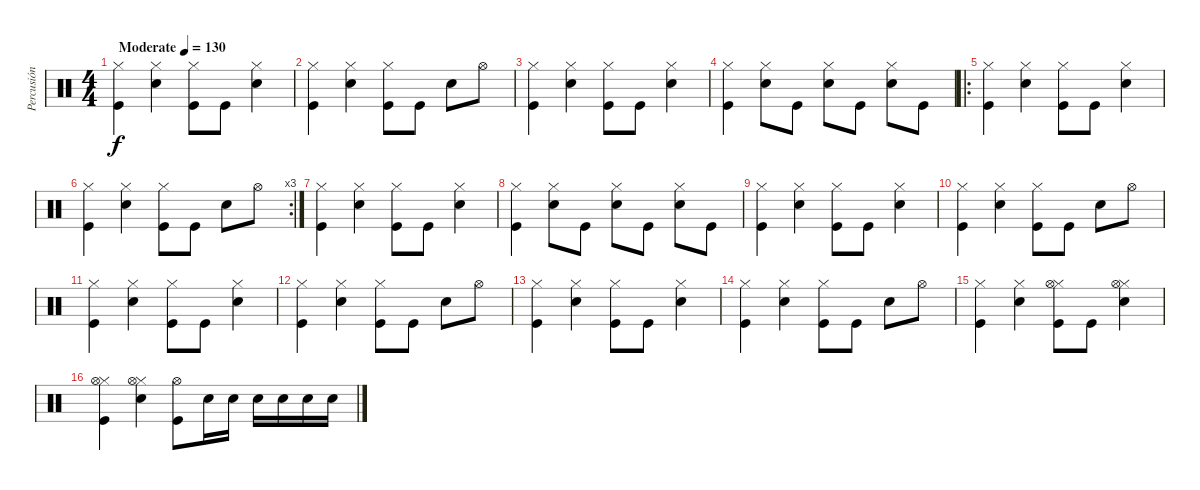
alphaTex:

\track ("Percusión" "Percusión") {instrument percussion}
\staff {score}
\articulation defaults
\ts (4 4)
\tempo (130 "Moderate")
\clef neutral
\ks c
("Kick (hit)" "Hi-Hat (closed)").4{dy f} ("Snare (hit) 2" "Hi-Hat (closed)").4 ("Kick (hit)" "Hi-Hat (closed)").8 "Kick (hit)".8 ("Snare (hit) 2" "Hi-Hat (closed)").4 |
("Kick (hit)" "Hi-Hat (closed)").4 ("Snare (hit) 2" "Hi-Hat (closed)").4 ("Kick (hit)" "Hi-Hat (closed)").8 "Kick (hit)".8 "Snare (hit) 2".8 "Hi-Hat (open)".8 |
("Kick (hit)" "Hi-Hat (closed)").4 ("Snare (hit) 2" "Hi-Hat (closed)").4 ("Kick (hit)" "Hi-Hat (closed)").8 "Kick (hit)".8 ("Snare (hit) 2" "Hi-Hat (closed)").4 |
("Kick (hit)" "Hi-Hat (closed)").4 ("Snare (hit) 2" "Hi-Hat (closed)").8 "Kick (hit)".8 ("Snare (hit) 2" "Hi-Hat (closed)").8 "Kick (hit)".8 ("Snare (hit) 2" "Hi-Hat (closed)").8 "Kick (hit)".8 |
\ro
("Kick (hit)" "Hi-Hat (closed)").4 ("Snare (hit) 2" "Hi-Hat (closed)").4 ("Kick (hit)" "Hi-Hat (closed)").8 "Kick (hit)".8 ("Snare (hit) 2" "Hi-Hat (closed)").4 |
\rc 3
("Kick (hit)" "Hi-Hat (closed)").4 ("Snare (hit) 2" "Hi-Hat (closed)").4 ("Kick (hit)" "Hi-Hat (closed)").8 "Kick (hit)".8 "Snare (hit) 2".8 "Hi-Hat (open)".8 |
("Kick (hit)" "Hi-Hat (closed)").4 ("Snare (hit) 2" "Hi-Hat (closed)").4 ("Kick (hit)" "Hi-Hat (closed)").8 "Kick (hit)".8 ("Snare (hit) 2" "Hi-Hat (closed)").4 |
("Kick (hit)" "Hi-Hat (closed)").4 ("Snare (hit) 2" "Hi-Hat (closed)").8 "Kick (hit)".8 ("Snare (hit) 2" "Hi-Hat (closed)").8 "Kick (hit)".8 ("Snare (hit) 2" "Hi-Hat (closed)").8 "Kick (hit)".8 |
("Kick (hit)" "Hi-Hat (closed)").4 ("Snare (hit) 2" "Hi-Hat (closed)").4 ("Kick (hit)" "Hi-Hat (closed)").8 "Kick (hit)".8 ("Snare (hit) 2" "Hi-Hat (closed)").4 |
("Kick (hit)" "Hi-Hat (closed)").4 ("Snare (hit) 2" "Hi-Hat (closed)").4 ("Kick (hit)" "Hi-Hat (closed)").8 "Kick (hit)".8 "Snare (hit) 2".8 "Hi-Hat (open)".8 |
("Kick (hit)" "Hi-Hat (closed)").4 ("Snare (hit) 2" "Hi-Hat (closed)").4 ("Kick (hit)" "Hi-Hat (closed)").8 "Kick (hit)".8 ("Snare (hit) 2" "Hi-Hat (closed)").4 |
("Kick (hit)" "Hi-Hat (closed)").4 ("Snare (hit) 2" "Hi-Hat (closed)").4 ("Kick (hit)" "Hi-Hat (closed)").8 "Kick (hit)".8 "Snare (hit) 2".8 "Hi-Hat (open)".8 |
("Kick (hit)" "Hi-Hat (closed)").4 ("Snare (hit) 2" "Hi-Hat (closed)").4 ("Kick (hit)" "Hi-Hat (closed)").8 "Kick (hit)".8 ("Snare (hit) 2" "Hi-Hat (closed)").4 |
("Kick (hit)" "Hi-Hat (closed)").4 ("Snare (hit) 2" "Hi-Hat (closed)").4 ("Kick (hit)" "Hi-Hat (closed)").8 "Kick (hit)".8 "Snare (hit) 2".8 "Hi-Hat (open)".8 |
("Kick (hit)" "Hi-Hat (closed)").4 ("Snare (hit) 2" "Hi-Hat (closed)").4 ("Kick (hit)" "Hi-Hat (closed)" "Hi-Hat (open)").8 "Kick (hit)".8 ("Snare (hit) 2" "Hi-Hat (closed)" "Hi-Hat (open)").4 |
("Kick (hit)" "Hi-Hat (closed)" "Hi-Hat (open)").4 ("Snare (hit) 2" "Hi-Hat (closed)" "Hi-Hat (open)").4 ("Kick (hit)" "Hi-Hat (open)").8 "Snare (hit) 2".16 "Snare (hit) 2".16 "Snare (hit) 2".16 "Snare (hit) 2".16 "Snare (hit) 2".16 "Snare (hit) 2".16
